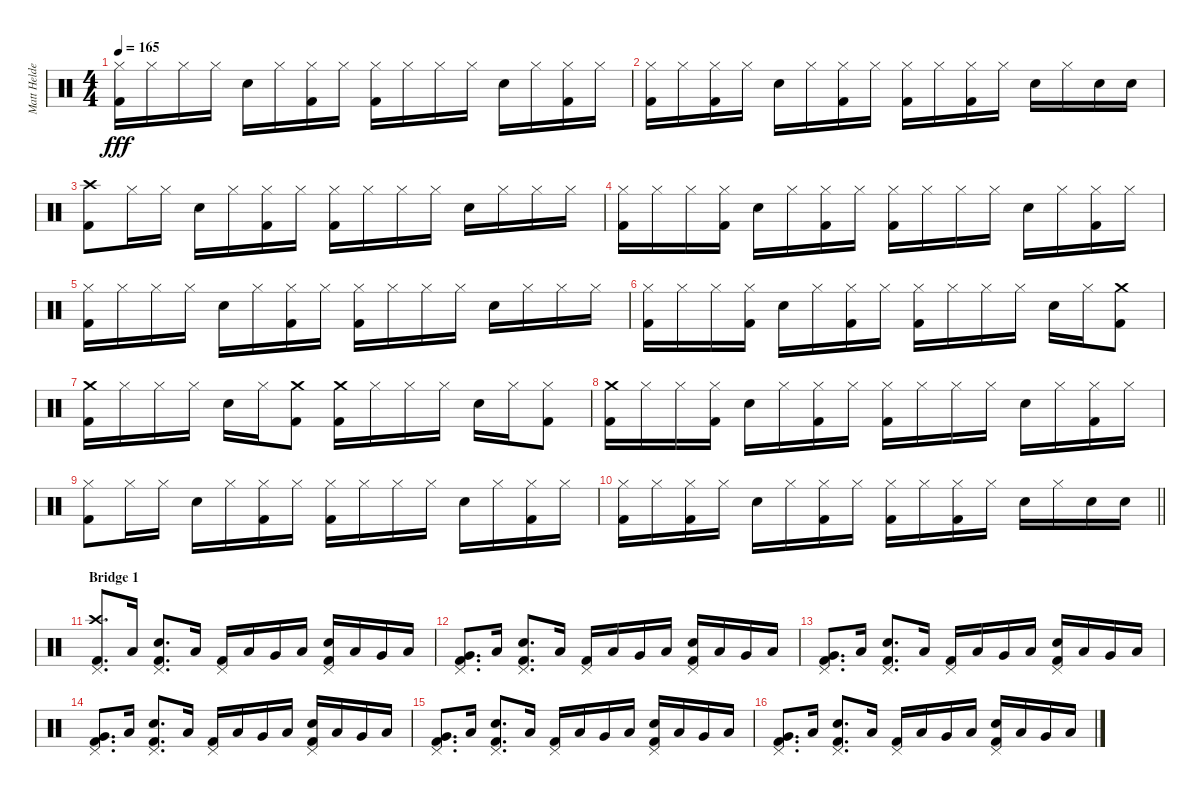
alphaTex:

\track ("Matt Helders (Drums)" "Matt Helde") {instrument percussion}
\staff {score}
\articulation defaults
\ts (4 4)
\tempo 165
\clef neutral
\ks c
("Hi-Hat (closed)" "Kick (hit) 2").16{dy fff} "Hi-Hat (closed)".16 "Hi-Hat (closed)".16 "Hi-Hat (closed)".16 "Electric Snare (hit)".16 "Hi-Hat (closed)".16 ("Hi-Hat (closed)" "Kick (hit) 2").16 "Hi-Hat (closed)".16 ("Hi-Hat (closed)" "Kick (hit) 2").16 "Hi-Hat (closed)".16 "Hi-Hat (closed)".16 "Hi-Hat (closed)".16 "Electric Snare (hit)".16 "Hi-Hat (closed)".16 ("Hi-Hat (closed)" "Kick (hit) 2").16 "Hi-Hat (closed)".16 |
("Hi-Hat (closed)" "Kick (hit) 2").16 "Hi-Hat (closed)".16 ("Hi-Hat (closed)" "Kick (hit) 2").16 "Hi-Hat (closed)".16 "Electric Snare (hit)".16 "Hi-Hat (closed)".16 ("Hi-Hat (closed)" "Kick (hit) 2").16 "Hi-Hat (closed)".16 ("Hi-Hat (closed)" "Kick (hit) 2").16 "Hi-Hat (closed)".16 ("Hi-Hat (closed)" "Kick (hit) 2").16 "Hi-Hat (closed)".16 "Electric Snare (hit)".16 "Hi-Hat (closed)".16 "Electric Snare (hit)".16 "Electric Snare (hit)".16 |
("Crash high (hit)" "Kick (hit) 2").8 "Hi-Hat (closed)".16 "Hi-Hat (closed)".16 "Electric Snare (hit)".16 "Hi-Hat (closed)".16 ("Hi-Hat (closed)" "Kick (hit) 2").16 "Hi-Hat (closed)".16 ("Hi-Hat (closed)" "Kick (hit) 2").16 "Hi-Hat (closed)".16 "Hi-Hat (closed)".16 "Hi-Hat (closed)".16 "Electric Snare (hit)".16 "Hi-Hat (closed)".16 "Hi-Hat (closed)".16 "Hi-Hat (closed)".16 |
("Hi-Hat (closed)" "Kick (hit) 2").16 "Hi-Hat (closed)".16 "Hi-Hat (closed)".16 ("Hi-Hat (closed)" "Kick (hit) 2").16 "Electric Snare (hit)".16 "Hi-Hat (closed)".16 ("Hi-Hat (closed)" "Kick (hit) 2").16 "Hi-Hat (closed)".16 ("Hi-Hat (closed)" "Kick (hit) 2").16 "Hi-Hat (closed)".16 "Hi-Hat (closed)".16 "Hi-Hat (closed)".16 "Electric Snare (hit)".16 "Hi-Hat (closed)".16 ("Hi-Hat (closed)" "Kick (hit) 2").16 "Hi-Hat (closed)".16 |
("Hi-Hat (closed)" "Kick (hit) 2").16 "Hi-Hat (closed)".16 "Hi-Hat (closed)".16 "Hi-Hat (closed)".16 "Electric Snare (hit)".16 "Hi-Hat (closed)".16 ("Hi-Hat (closed)" "Kick (hit) 2").16 "Hi-Hat (closed)".16 ("Hi-Hat (closed)" "Kick (hit) 2").16 "Hi-Hat (closed)".16 "Hi-Hat (closed)".16 "Hi-Hat (closed)".16 "Electric Snare (hit)".16 "Hi-Hat (closed)".16 "Hi-Hat (closed)".16 "Hi-Hat (closed)".16 |
("Hi-Hat (closed)" "Kick (hit) 2").16 "Hi-Hat (closed)".16 "Hi-Hat (closed)".16 ("Hi-Hat (closed)" "Kick (hit) 2").16 "Electric Snare (hit)".16 "Hi-Hat (closed)".16 ("Hi-Hat (closed)" "Kick (hit) 2").16 "Hi-Hat (closed)".16 ("Hi-Hat (closed)" "Kick (hit) 2").16 "Hi-Hat (closed)".16 "Hi-Hat (closed)".16 "Hi-Hat (closed)".16 "Electric Snare (hit)".16 "Hi-Hat (closed)".16 ("Crash medium (hit)" "Kick (hit) 2").8 |
("Crash medium (hit)" "Kick (hit) 2").16 "Hi-Hat (closed)".16 "Hi-Hat (closed)".16 "Hi-Hat (closed)".16 "Electric Snare (hit)".16 "Hi-Hat (closed)".16 ("Crash medium (hit)" "Kick (hit) 2").8 ("Crash medium (hit)" "Kick (hit) 2").16 "Hi-Hat (closed)".16 "Hi-Hat (closed)".16 "Hi-Hat (closed)".16 "Electric Snare (hit)".16 "Hi-Hat (closed)".16 ("Hi-Hat (closed)" "Kick (hit) 2").8 |
("Crash medium (hit)" "Kick (hit) 2").16 "Hi-Hat (closed)".16 "Hi-Hat (closed)".16 ("Hi-Hat (closed)" "Kick (hit) 2").16 "Electric Snare (hit)".16 "Hi-Hat (closed)".16 ("Hi-Hat (closed)" "Kick (hit) 2").16 "Hi-Hat (closed)".16 ("Hi-Hat (closed)" "Kick (hit) 2").16 "Hi-Hat (closed)".16 "Hi-Hat (closed)".16 "Hi-Hat (closed)".16 "Electric Snare (hit)".16 "Hi-Hat (closed)".16 ("Hi-Hat (closed)" "Kick (hit) 2").16 "Hi-Hat (closed)".16 |
("Hi-Hat (closed)" "Kick (hit) 2").8 "Hi-Hat (closed)".16 "Hi-Hat (closed)".16 "Electric Snare (hit)".16 "Hi-Hat (closed)".16 ("Hi-Hat (closed)" "Kick (hit) 2").16 "Hi-Hat (closed)".16 ("Hi-Hat (closed)" "Kick (hit) 2").16 "Hi-Hat (closed)".16 "Hi-Hat (closed)".16 "Hi-Hat (closed)".16 "Electric Snare (hit)".16 "Hi-Hat (closed)".16 ("Hi-Hat (closed)" "Kick (hit) 2").16 "Hi-Hat (closed)".16 |
\barLineRight lightlight
("Hi-Hat (closed)" "Kick (hit) 2").16 "Hi-Hat (closed)".16 ("Hi-Hat (closed)" "Kick (hit) 2").16 "Hi-Hat (closed)".16 "Electric Snare (hit)".16 "Hi-Hat (closed)".16 ("Hi-Hat (closed)" "Kick (hit) 2").16 "Hi-Hat (closed)".16 ("Hi-Hat (closed)" "Kick (hit) 2").16 "Hi-Hat (closed)".16 ("Hi-Hat (closed)" "Kick (hit) 2").16 "Hi-Hat (closed)".16 "Electric Snare (hit)".16 "Hi-Hat (closed)".16 "Electric Snare (hit)".16 "Electric Snare (hit)".16 |
\section ("" "Bridge 1")
("Crash high (hit)" "Pedal Hi-Hat (hit)" "Kick (hit) 2").8{d volume 8} "Low Tom (hit)".16 ("Pedal Hi-Hat (hit)" "Electric Snare (hit)" "Kick (hit) 2").8{d} "Low Tom (hit)".16 ("Pedal Hi-Hat (hit)" "Kick (hit) 2").16 "Low Tom (hit)".16 "Very Low Tom (hit)".16 "Low Tom (hit)".16 ("Pedal Hi-Hat (hit)" "Electric Snare (hit)" "Kick (hit) 2").16 "Low Tom (hit)".16 "Very Low Tom (hit)".16 "Low Tom (hit)".16 |
("Pedal Hi-Hat (hit)" "Very Low Tom (hit)" "Kick (hit) 2").8{d} "Low Tom (hit)".16 ("Pedal Hi-Hat (hit)" "Electric Snare (hit)" "Kick (hit) 2").8{d} "Low Tom (hit)".16 ("Pedal Hi-Hat (hit)" "Kick (hit) 2").16 "Low Tom (hit)".16 "Very Low Tom (hit)".16 "Low Tom (hit)".16 ("Pedal Hi-Hat (hit)" "Electric Snare (hit)" "Kick (hit) 2").16 "Low Tom (hit)".16 "Very Low Tom (hit)".16 "Low Tom (hit)".16 |
("Pedal Hi-Hat (hit)" "Very Low Tom (hit)" "Kick (hit) 2").8{d} "Low Tom (hit)".16 ("Pedal Hi-Hat (hit)" "Electric Snare (hit)" "Kick (hit) 2").8{d} "Low Tom (hit)".16 ("Pedal Hi-Hat (hit)" "Kick (hit) 2").16 "Low Tom (hit)".16 "Very Low Tom (hit)".16 "Low Tom (hit)".16 ("Pedal Hi-Hat (hit)" "Electric Snare (hit)" "Kick (hit) 2").16 "Low Tom (hit)".16 "Very Low Tom (hit)".16 "Low Tom (hit)".16 |
("Pedal Hi-Hat (hit)" "Very Low Tom (hit)" "Kick (hit) 2").8{d} "Low Tom (hit)".16 ("Pedal Hi-Hat (hit)" "Electric Snare (hit)" "Kick (hit) 2").8{d} "Low Tom (hit)".16 ("Pedal Hi-Hat (hit)" "Kick (hit) 2").16 "Low Tom (hit)".16 "Very Low Tom (hit)".16 "Low Tom (hit)".16 ("Pedal Hi-Hat (hit)" "Electric Snare (hit)" "Kick (hit) 2").16 "Low Tom (hit)".16 "Very Low Tom (hit)".16 "Low Tom (hit)".16 |
("Pedal Hi-Hat (hit)" "Very Low Tom (hit)" "Kick (hit) 2").8{d} "Low Tom (hit)".16 ("Pedal Hi-Hat (hit)" "Electric Snare (hit)" "Kick (hit) 2").8{d} "Low Tom (hit)".16 ("Pedal Hi-Hat (hit)" "Kick (hit) 2").16 "Low Tom (hit)".16 "Very Low Tom (hit)".16 "Low Tom (hit)".16 ("Pedal Hi-Hat (hit)" "Electric Snare (hit)" "Kick (hit) 2").16 "Low Tom (hit)".16 "Very Low Tom (hit)".16 "Low Tom (hit)".16 |
("Pedal Hi-Hat (hit)" "Very Low Tom (hit)" "Kick (hit) 2").8{d} "Low Tom (hit)".16 ("Pedal Hi-Hat (hit)" "Electric Snare (hit)" "Kick (hit) 2").8{d} "Low Tom (hit)".16 ("Pedal Hi-Hat (hit)" "Kick (hit) 2").16 "Low Tom (hit)".16 "Very Low Tom (hit)".16 "Low Tom (hit)".16 ("Pedal Hi-Hat (hit)" "Electric Snare (hit)" "Kick (hit) 2").16 "Low Tom (hit)".16 "Very Low Tom (hit)".16 "Low Tom (hit)".16
